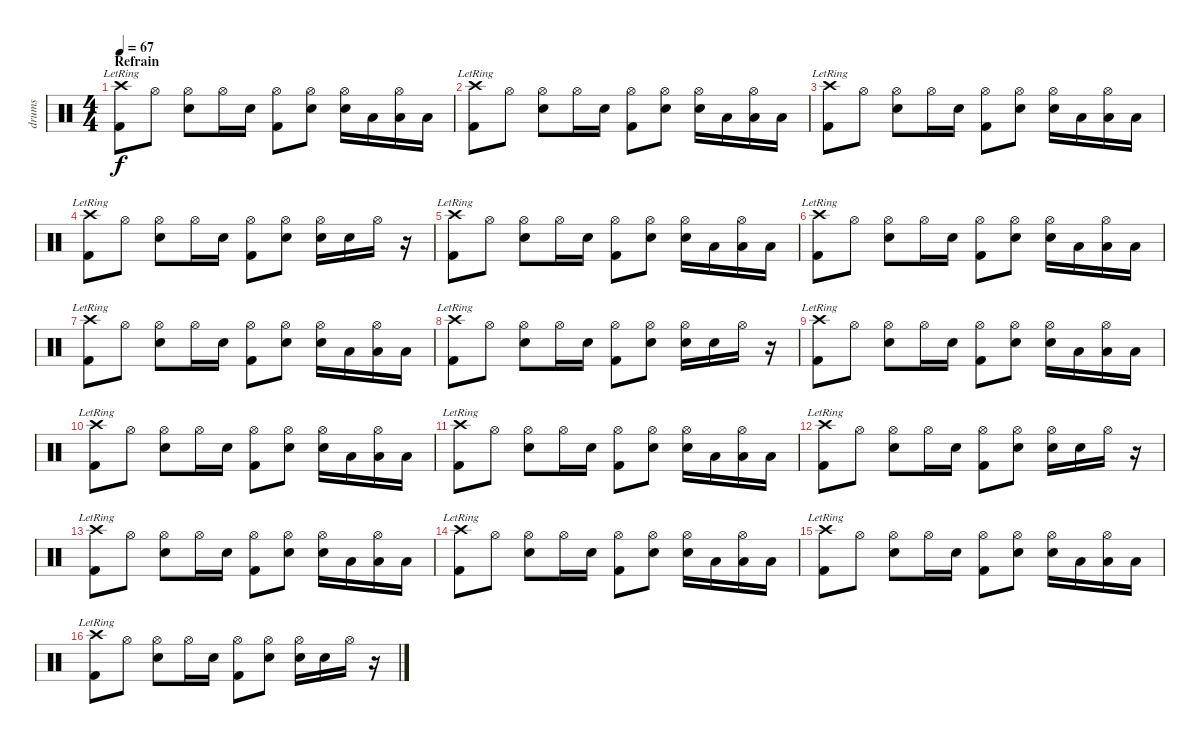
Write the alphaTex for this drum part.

\track ("drums" "drums") {instrument percussion}
\staff {score}
\articulation defaults
\ts (4 4)
\section ("" "Refrain")
\tempo 67
\clef neutral
\ks c
("Crash high (hit)"{lr} "Kick (hit) 2").8{dy f} "Hi-Hat (open)".8 ("Hi-Hat (open)" "Snare (hit) 2").8 "Hi-Hat (open)".16 "Snare (hit) 2".16 ("Hi-Hat (open)" "Kick (hit) 2").8 ("Hi-Hat (open)" "Snare (hit) 2").8 ("Hi-Hat (open)" "Snare (hit) 2").16 "Low Tom (hit)".16 ("Hi-Hat (open)" "Low Tom (hit)").16 "Low Tom (hit)".16 |
("Crash high (hit)"{lr} "Kick (hit) 2").8 "Hi-Hat (open)".8 ("Hi-Hat (open)" "Snare (hit) 2").8 "Hi-Hat (open)".16 "Snare (hit) 2".16 ("Hi-Hat (open)" "Kick (hit) 2").8 ("Hi-Hat (open)" "Snare (hit) 2").8 ("Hi-Hat (open)" "Snare (hit) 2").16 "Low Tom (hit)".16 ("Hi-Hat (open)" "Low Tom (hit)").16 "Low Tom (hit)".16 |
("Crash high (hit)"{lr} "Kick (hit) 2").8 "Hi-Hat (open)".8 ("Hi-Hat (open)" "Snare (hit) 2").8 "Hi-Hat (open)".16 "Snare (hit) 2".16 ("Hi-Hat (open)" "Kick (hit) 2").8 ("Hi-Hat (open)" "Snare (hit) 2").8 ("Hi-Hat (open)" "Snare (hit) 2").16 "Low Tom (hit)".16 ("Hi-Hat (open)" "Low Tom (hit)").16 "Low Tom (hit)".16 |
("Crash high (hit)"{lr} "Kick (hit) 2").8 "Hi-Hat (open)".8 ("Hi-Hat (open)" "Snare (hit) 2").8 "Hi-Hat (open)".16 "Snare (hit) 2".16 ("Hi-Hat (open)" "Kick (hit) 2").8 ("Hi-Hat (open)" "Snare (hit) 2").8 ("Hi-Hat (open)" "Snare (hit) 2").16 "Snare (hit) 2".16 "Hi-Hat (open)".16 r.16 |
("Crash high (hit)"{lr} "Kick (hit) 2").8 "Hi-Hat (open)".8 ("Hi-Hat (open)" "Snare (hit) 2").8 "Hi-Hat (open)".16 "Snare (hit) 2".16 ("Hi-Hat (open)" "Kick (hit) 2").8 ("Hi-Hat (open)" "Snare (hit) 2").8 ("Hi-Hat (open)" "Snare (hit) 2").16 "Low Tom (hit)".16 ("Hi-Hat (open)" "Low Tom (hit)").16 "Low Tom (hit)".16 |
("Crash high (hit)"{lr} "Kick (hit) 2").8 "Hi-Hat (open)".8 ("Hi-Hat (open)" "Snare (hit) 2").8 "Hi-Hat (open)".16 "Snare (hit) 2".16 ("Hi-Hat (open)" "Kick (hit) 2").8 ("Hi-Hat (open)" "Snare (hit) 2").8 ("Hi-Hat (open)" "Snare (hit) 2").16 "Low Tom (hit)".16 ("Hi-Hat (open)" "Low Tom (hit)").16 "Low Tom (hit)".16 |
("Crash high (hit)"{lr} "Kick (hit) 2").8 "Hi-Hat (open)".8 ("Hi-Hat (open)" "Snare (hit) 2").8 "Hi-Hat (open)".16 "Snare (hit) 2".16 ("Hi-Hat (open)" "Kick (hit) 2").8 ("Hi-Hat (open)" "Snare (hit) 2").8 ("Hi-Hat (open)" "Snare (hit) 2").16 "Low Tom (hit)".16 ("Hi-Hat (open)" "Low Tom (hit)").16 "Low Tom (hit)".16 |
("Crash high (hit)"{lr} "Kick (hit) 2").8 "Hi-Hat (open)".8 ("Hi-Hat (open)" "Snare (hit) 2").8 "Hi-Hat (open)".16 "Snare (hit) 2".16 ("Hi-Hat (open)" "Kick (hit) 2").8 ("Hi-Hat (open)" "Snare (hit) 2").8 ("Hi-Hat (open)" "Snare (hit) 2").16 "Snare (hit) 2".16 "Hi-Hat (open)".16 r.16 |
("Crash high (hit)"{lr} "Kick (hit) 2").8 "Hi-Hat (open)".8 ("Hi-Hat (open)" "Snare (hit) 2").8 "Hi-Hat (open)".16 "Snare (hit) 2".16 ("Hi-Hat (open)" "Kick (hit) 2").8 ("Hi-Hat (open)" "Snare (hit) 2").8 ("Hi-Hat (open)" "Snare (hit) 2").16 "Low Tom (hit)".16 ("Hi-Hat (open)" "Low Tom (hit)").16 "Low Tom (hit)".16 |
("Crash high (hit)"{lr} "Kick (hit) 2").8 "Hi-Hat (open)".8 ("Hi-Hat (open)" "Snare (hit) 2").8 "Hi-Hat (open)".16 "Snare (hit) 2".16 ("Hi-Hat (open)" "Kick (hit) 2").8 ("Hi-Hat (open)" "Snare (hit) 2").8 ("Hi-Hat (open)" "Snare (hit) 2").16 "Low Tom (hit)".16 ("Hi-Hat (open)" "Low Tom (hit)").16 "Low Tom (hit)".16 |
("Crash high (hit)"{lr} "Kick (hit) 2").8 "Hi-Hat (open)".8 ("Hi-Hat (open)" "Snare (hit) 2").8 "Hi-Hat (open)".16 "Snare (hit) 2".16 ("Hi-Hat (open)" "Kick (hit) 2").8 ("Hi-Hat (open)" "Snare (hit) 2").8 ("Hi-Hat (open)" "Snare (hit) 2").16 "Low Tom (hit)".16 ("Hi-Hat (open)" "Low Tom (hit)").16 "Low Tom (hit)".16 |
("Crash high (hit)"{lr} "Kick (hit) 2").8 "Hi-Hat (open)".8 ("Hi-Hat (open)" "Snare (hit) 2").8 "Hi-Hat (open)".16 "Snare (hit) 2".16 ("Hi-Hat (open)" "Kick (hit) 2").8 ("Hi-Hat (open)" "Snare (hit) 2").8 ("Hi-Hat (open)" "Snare (hit) 2").16 "Snare (hit) 2".16 "Hi-Hat (open)".16 r.16 |
("Crash high (hit)"{lr} "Kick (hit) 2").8 "Hi-Hat (open)".8 ("Hi-Hat (open)" "Snare (hit) 2").8 "Hi-Hat (open)".16 "Snare (hit) 2".16 ("Hi-Hat (open)" "Kick (hit) 2").8 ("Hi-Hat (open)" "Snare (hit) 2").8 ("Hi-Hat (open)" "Snare (hit) 2").16 "Low Tom (hit)".16 ("Hi-Hat (open)" "Low Tom (hit)").16 "Low Tom (hit)".16 |
("Crash high (hit)"{lr} "Kick (hit) 2").8 "Hi-Hat (open)".8 ("Hi-Hat (open)" "Snare (hit) 2").8 "Hi-Hat (open)".16 "Snare (hit) 2".16 ("Hi-Hat (open)" "Kick (hit) 2").8 ("Hi-Hat (open)" "Snare (hit) 2").8 ("Hi-Hat (open)" "Snare (hit) 2").16 "Low Tom (hit)".16 ("Hi-Hat (open)" "Low Tom (hit)").16 "Low Tom (hit)".16 |
("Crash high (hit)"{lr} "Kick (hit) 2").8 "Hi-Hat (open)".8 ("Hi-Hat (open)" "Snare (hit) 2").8 "Hi-Hat (open)".16 "Snare (hit) 2".16 ("Hi-Hat (open)" "Kick (hit) 2").8 ("Hi-Hat (open)" "Snare (hit) 2").8 ("Hi-Hat (open)" "Snare (hit) 2").16 "Low Tom (hit)".16 ("Hi-Hat (open)" "Low Tom (hit)").16 "Low Tom (hit)".16 |
("Crash high (hit)"{lr} "Kick (hit) 2").8 "Hi-Hat (open)".8 ("Hi-Hat (open)" "Snare (hit) 2").8 "Hi-Hat (open)".16 "Snare (hit) 2".16 ("Hi-Hat (open)" "Kick (hit) 2").8 ("Hi-Hat (open)" "Snare (hit) 2").8 ("Hi-Hat (open)" "Snare (hit) 2").16 "Snare (hit) 2".16 "Hi-Hat (open)".16 r.16
